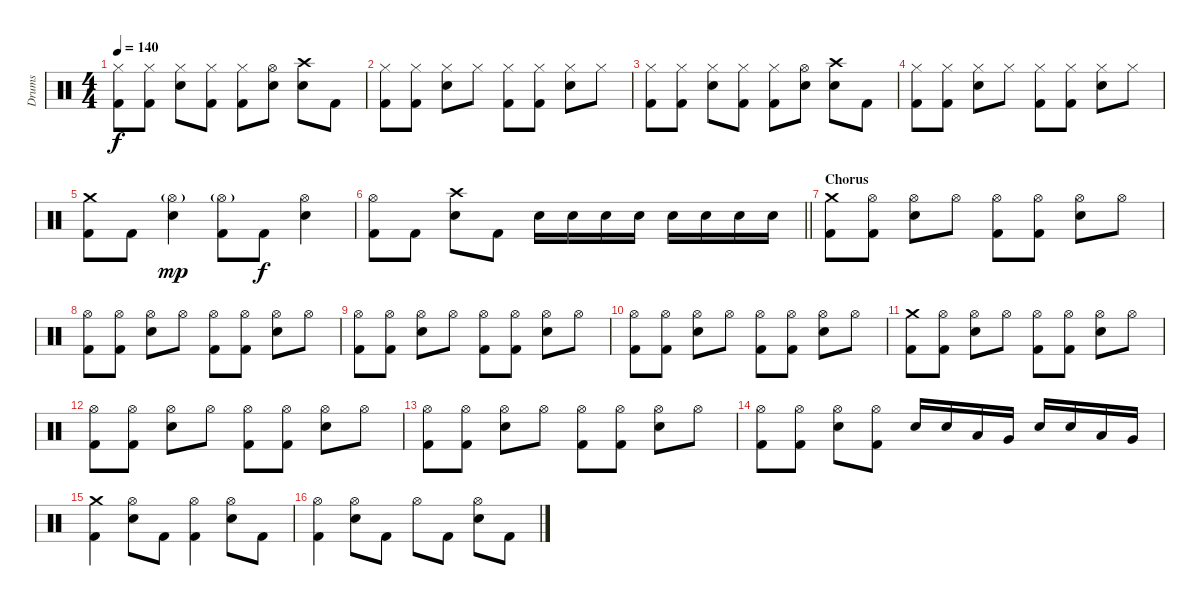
\track ("Drums" "Drums") {instrument percussion}
\staff {score}
\articulation defaults
\ts (4 4)
\tempo 140
\clef neutral
\ks c
("Hi-Hat (closed)" "Kick (hit) 2").8{dy f} ("Hi-Hat (closed)" "Kick (hit) 2").8 ("Hi-Hat (closed)" "Electric Snare (hit)").8 ("Hi-Hat (closed)" "Kick (hit) 2").8 ("Hi-Hat (closed)" "Kick (hit) 2").8 ("Hi-Hat (open)" "Electric Snare (hit)").8 ("Crash high (hit)" "Electric Snare (hit)").8 "Kick (hit) 2".8 |
("Hi-Hat (closed)" "Kick (hit) 2").8 ("Hi-Hat (closed)" "Kick (hit) 2").8 ("Hi-Hat (closed)" "Electric Snare (hit)").8 "Hi-Hat (closed)".8 ("Hi-Hat (closed)" "Kick (hit) 2").8 ("Hi-Hat (closed)" "Kick (hit) 2").8 ("Hi-Hat (closed)" "Electric Snare (hit)").8 "Hi-Hat (closed)".8 |
("Hi-Hat (closed)" "Kick (hit) 2").8 ("Hi-Hat (closed)" "Kick (hit) 2").8 ("Hi-Hat (closed)" "Electric Snare (hit)").8 ("Hi-Hat (closed)" "Kick (hit) 2").8 ("Hi-Hat (closed)" "Kick (hit) 2").8 ("Hi-Hat (open)" "Electric Snare (hit)").8 ("Crash high (hit)" "Electric Snare (hit)").8 "Kick (hit) 2".8 |
("Hi-Hat (closed)" "Kick (hit) 2").8 ("Hi-Hat (closed)" "Kick (hit) 2").8 ("Hi-Hat (closed)" "Electric Snare (hit)").8 "Hi-Hat (closed)".8 ("Hi-Hat (closed)" "Kick (hit) 2").8 ("Hi-Hat (closed)" "Kick (hit) 2").8 ("Hi-Hat (closed)" "Electric Snare (hit)").8 "Hi-Hat (closed)".8 |
("Crash medium (hit)" "Kick (hit) 2").8 "Kick (hit) 2".8 ("Hi-Hat (open)"{g} "Electric Snare (hit)").4{dy mp} ("Hi-Hat (open)"{g} "Kick (hit) 2").8 "Kick (hit) 2".8{dy f} ("Hi-Hat (open)" "Electric Snare (hit)").4 |
\barLineRight lightlight
("Hi-Hat (open)" "Kick (hit) 2").8 "Kick (hit) 2".8 ("Crash high (hit)" "Electric Snare (hit)").8 "Kick (hit) 2".8 "Electric Snare (hit)".16 "Electric Snare (hit)".16 "Electric Snare (hit)".16 "Electric Snare (hit)".16 "Electric Snare (hit)".16 "Electric Snare (hit)".16 "Electric Snare (hit)".16 "Electric Snare (hit)".16 |
\section ("" "Chorus")
("Crash medium (hit)" "Kick (hit) 2").8 ("Hi-Hat (open)" "Kick (hit) 2").8 ("Hi-Hat (open)" "Electric Snare (hit)").8 "Hi-Hat (open)".8 ("Hi-Hat (open)" "Kick (hit) 2").8 ("Hi-Hat (open)" "Kick (hit) 2").8 ("Hi-Hat (open)" "Electric Snare (hit)").8 "Hi-Hat (open)".8 |
("Hi-Hat (open)" "Kick (hit) 2").8 ("Hi-Hat (open)" "Kick (hit) 2").8 ("Hi-Hat (open)" "Electric Snare (hit)").8 "Hi-Hat (open)".8 ("Hi-Hat (open)" "Kick (hit) 2").8 ("Hi-Hat (open)" "Kick (hit) 2").8 ("Hi-Hat (open)" "Electric Snare (hit)").8 "Hi-Hat (open)".8 |
("Hi-Hat (open)" "Kick (hit) 2").8 ("Hi-Hat (open)" "Kick (hit) 2").8 ("Hi-Hat (open)" "Electric Snare (hit)").8 "Hi-Hat (open)".8 ("Hi-Hat (open)" "Kick (hit) 2").8 ("Hi-Hat (open)" "Kick (hit) 2").8 ("Hi-Hat (open)" "Electric Snare (hit)").8 "Hi-Hat (open)".8 |
("Hi-Hat (open)" "Kick (hit) 2").8 ("Hi-Hat (open)" "Kick (hit) 2").8 ("Hi-Hat (open)" "Electric Snare (hit)").8 "Hi-Hat (open)".8 ("Hi-Hat (open)" "Kick (hit) 2").8 ("Hi-Hat (open)" "Kick (hit) 2").8 ("Hi-Hat (open)" "Electric Snare (hit)").8 "Hi-Hat (open)".8 |
("Crash medium (hit)" "Kick (hit) 2").8 ("Hi-Hat (open)" "Kick (hit) 2").8 ("Hi-Hat (open)" "Electric Snare (hit)").8 "Hi-Hat (open)".8 ("Hi-Hat (open)" "Kick (hit) 2").8 ("Hi-Hat (open)" "Kick (hit) 2").8 ("Hi-Hat (open)" "Electric Snare (hit)").8 "Hi-Hat (open)".8 |
("Hi-Hat (open)" "Kick (hit) 2").8 ("Hi-Hat (open)" "Kick (hit) 2").8 ("Hi-Hat (open)" "Electric Snare (hit)").8 "Hi-Hat (open)".8 ("Hi-Hat (open)" "Kick (hit) 2").8 ("Hi-Hat (open)" "Kick (hit) 2").8 ("Hi-Hat (open)" "Electric Snare (hit)").8 "Hi-Hat (open)".8 |
("Hi-Hat (open)" "Kick (hit) 2").8 ("Hi-Hat (open)" "Kick (hit) 2").8 ("Hi-Hat (open)" "Electric Snare (hit)").8 "Hi-Hat (open)".8 ("Hi-Hat (open)" "Kick (hit) 2").8 ("Hi-Hat (open)" "Kick (hit) 2").8 ("Hi-Hat (open)" "Electric Snare (hit)").8 "Hi-Hat (open)".8 |
("Hi-Hat (open)" "Kick (hit) 2").8 ("Hi-Hat (open)" "Kick (hit) 2").8 ("Hi-Hat (open)" "Electric Snare (hit)").8 ("Hi-Hat (open)" "Kick (hit) 2").8 "Electric Snare (hit)".16 "Electric Snare (hit)".16 "Low Tom (hit)".16 "Very Low Tom (hit)".16 "Electric Snare (hit)".16 "Electric Snare (hit)".16 "Low Tom (hit)".16 "Very Low Tom (hit)".16 |
("Crash medium (hit)" "Kick (hit) 2").4 ("Hi-Hat (open)" "Electric Snare (hit)").8 "Kick (hit) 2".8 ("Hi-Hat (open)" "Kick (hit) 2").4 ("Hi-Hat (open)" "Electric Snare (hit)").8 "Kick (hit) 2".8 |
("Hi-Hat (open)" "Kick (hit) 2").4 ("Hi-Hat (open)" "Electric Snare (hit)").8 "Kick (hit) 2".8 "Hi-Hat (open)".8 "Kick (hit) 2".8 ("Hi-Hat (open)" "Electric Snare (hit)").8 "Kick (hit) 2".8
